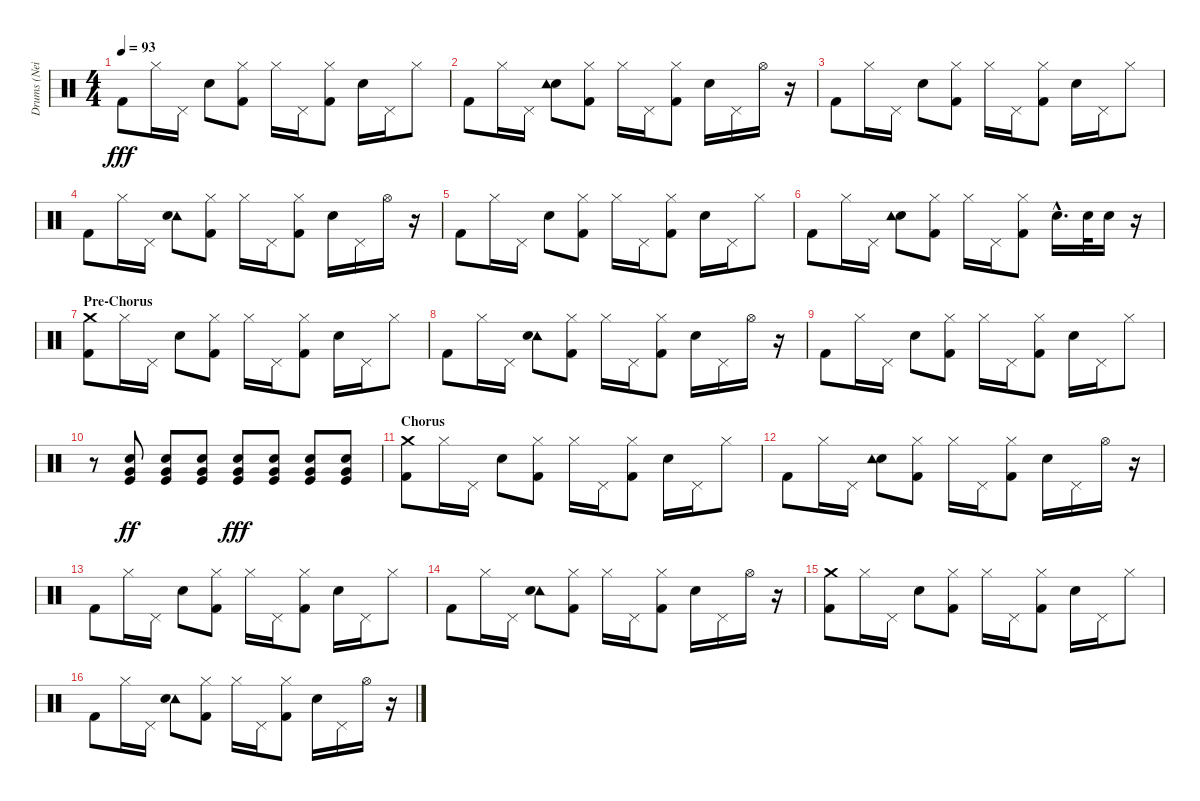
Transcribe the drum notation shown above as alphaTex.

\track ("Drums (Neil)" "Drums (Nei") {instrument percussion}
\staff {score}
\articulation defaults
\ts (4 4)
\tempo 93
\clef neutral
\ks c "Kick (hit) 2".8{dy fff} "Hi-Hat (closed)".16 "Pedal Hi-Hat (hit)".16 "Electric Snare (hit)".8
("Hi-Hat (closed)" "Kick (hit) 2").8 "Hi-Hat (closed)".16 "Pedal Hi-Hat (hit)".16 ("Hi-Hat (closed)" "Kick (hit) 2").8 "Electric Snare (hit)".16 "Pedal Hi-Hat (hit)".16 "Hi-Hat (closed)".8 |
"Kick (hit) 2".8 "Hi-Hat (closed)".16 "Pedal Hi-Hat (hit)".16 ("Electric Snare (hit)" "Tambourine (hit)").8 ("Hi-Hat (closed)" "Kick (hit) 2").8 "Hi-Hat (closed)".16 "Pedal Hi-Hat (hit)".16 ("Hi-Hat (closed)" "Kick (hit) 2").8 "Electric Snare (hit)".16 "Pedal Hi-Hat (hit)".16 "Hi-Hat (open)".16 r.16 |
"Kick (hit) 2".8 "Hi-Hat (closed)".16 "Pedal Hi-Hat (hit)".16 "Electric Snare (hit)".8 ("Hi-Hat (closed)" "Kick (hit) 2").8 "Hi-Hat (closed)".16 "Pedal Hi-Hat (hit)".16 ("Kick (hit) 2" "Hi-Hat (closed)").8 "Electric Snare (hit)".16 "Pedal Hi-Hat (hit)".16 "Hi-Hat (closed)".8 |
"Kick (hit) 2".8 "Hi-Hat (closed)".16 "Pedal Hi-Hat (hit)".16 ("Tambourine (hit)" "Electric Snare (hit)").8 ("Hi-Hat (closed)" "Kick (hit) 2").8 "Hi-Hat (closed)".16 "Pedal Hi-Hat (hit)".16 ("Kick (hit) 2" "Hi-Hat (closed)").8 "Electric Snare (hit)".16 "Pedal Hi-Hat (hit)".16 "Hi-Hat (open)".16 r.16 |
"Kick (hit) 2".8 "Hi-Hat (closed)".16 "Pedal Hi-Hat (hit)".16 "Electric Snare (hit)".8 ("Kick (hit) 2" "Hi-Hat (closed)").8 "Hi-Hat (closed)".16 "Pedal Hi-Hat (hit)".16 ("Kick (hit) 2" "Hi-Hat (closed)").8 "Electric Snare (hit)".16 "Pedal Hi-Hat (hit)".16 "Hi-Hat (closed)".8 |
"Kick (hit) 2".8 "Hi-Hat (closed)".16 "Pedal Hi-Hat (hit)".16 ("Electric Snare (hit)" "Tambourine (hit)").8 ("Kick (hit) 2" "Hi-Hat (closed)").8 "Hi-Hat (closed)".16 "Pedal Hi-Hat (hit)".16 ("Hi-Hat (closed)" "Kick (hit) 2").8 "Electric Snare (hit)"{hac}.16{d} "Electric Snare (hit)".32 "Electric Snare (hit)".16 r.16 |
\section ("" "Pre-Chorus")
("Crash medium (hit)" "Kick (hit) 2").8 "Hi-Hat (closed)".16 "Pedal Hi-Hat (hit)".16 "Electric Snare (hit)".8 ("Hi-Hat (closed)" "Kick (hit) 2").8 "Hi-Hat (closed)".16 "Pedal Hi-Hat (hit)".16 ("Kick (hit) 2" "Hi-Hat (closed)").8 "Electric Snare (hit)".16 "Pedal Hi-Hat (hit)".16 "Hi-Hat (closed)".8 |
"Kick (hit) 2".8 "Hi-Hat (closed)".16 "Pedal Hi-Hat (hit)".16 ("Tambourine (hit)" "Electric Snare (hit)").8 ("Kick (hit) 2" "Hi-Hat (closed)").8 "Hi-Hat (closed)".16 "Pedal Hi-Hat (hit)".16 ("Kick (hit) 2" "Hi-Hat (closed)").8 "Electric Snare (hit)".16 "Pedal Hi-Hat (hit)".16 "Hi-Hat (open)".16 r.16 |
"Kick (hit) 2".8 "Hi-Hat (closed)".16 "Pedal Hi-Hat (hit)".16 "Electric Snare (hit)".8 ("Hi-Hat (closed)" "Kick (hit) 2").8 "Hi-Hat (closed)".16 "Pedal Hi-Hat (hit)".16 ("Kick (hit) 2" "Hi-Hat (closed)").8 "Electric Snare (hit)".16 "Pedal Hi-Hat (hit)".16 "Hi-Hat (closed)".8 |
r.8 ("Kick (hit)" "Very Low Tom (hit)" "Electric Snare (hit)").8{dy ff} ("Electric Snare (hit)" "Kick (hit)" "Very Low Tom (hit)").8 ("Electric Snare (hit)" "Kick (hit)" "Very Low Tom (hit)").8 ("Electric Snare (hit)" "Kick (hit)" "Very Low Tom (hit)").8{dy fff} ("Very Low Tom (hit)" "Electric Snare (hit)" "Kick (hit)").8 ("Electric Snare (hit)" "Very Low Tom (hit)" "Kick (hit)").8 ("Kick (hit)" "Electric Snare (hit)" "Very Low Tom (hit)").8 |
\section ("" "Chorus")
("Kick (hit) 2" "Crash medium (hit)").8 "Hi-Hat (closed)".16 "Pedal Hi-Hat (hit)".16 "Electric Snare (hit)".8 ("Kick (hit) 2" "Hi-Hat (closed)").8 "Hi-Hat (closed)".16 "Pedal Hi-Hat (hit)".16 ("Kick (hit) 2" "Hi-Hat (closed)").8 "Electric Snare (hit)".16 "Pedal Hi-Hat (hit)".16 "Hi-Hat (closed)".8 |
"Kick (hit) 2".8 "Hi-Hat (closed)".16 "Pedal Hi-Hat (hit)".16 ("Electric Snare (hit)" "Tambourine (hit)").8 ("Hi-Hat (closed)" "Kick (hit) 2").8 "Hi-Hat (closed)".16 "Pedal Hi-Hat (hit)".16 ("Kick (hit) 2" "Hi-Hat (closed)").8 "Electric Snare (hit)".16 "Pedal Hi-Hat (hit)".16 "Hi-Hat (open)".16 r.16 |
"Kick (hit) 2".8 "Hi-Hat (closed)".16 "Pedal Hi-Hat (hit)".16 "Electric Snare (hit)".8 ("Kick (hit) 2" "Hi-Hat (closed)").8 "Hi-Hat (closed)".16 "Pedal Hi-Hat (hit)".16 ("Kick (hit) 2" "Hi-Hat (closed)").8 "Electric Snare (hit)".16 "Pedal Hi-Hat (hit)".16 "Hi-Hat (closed)".8 |
"Kick (hit) 2".8 "Hi-Hat (closed)".16 "Pedal Hi-Hat (hit)".16 ("Tambourine (hit)" "Electric Snare (hit)").8 ("Hi-Hat (closed)" "Kick (hit) 2").8 "Hi-Hat (closed)".16 "Pedal Hi-Hat (hit)".16 ("Kick (hit) 2" "Hi-Hat (closed)").8 "Electric Snare (hit)".16 "Pedal Hi-Hat (hit)".16 "Hi-Hat (open)".16 r.16 |
("Kick (hit) 2" "Crash medium (hit)").8 "Hi-Hat (closed)".16 "Pedal Hi-Hat (hit)".16 "Electric Snare (hit)".8 ("Hi-Hat (closed)" "Kick (hit) 2").8 "Hi-Hat (closed)".16 "Pedal Hi-Hat (hit)".16 ("Kick (hit) 2" "Hi-Hat (closed)").8 "Electric Snare (hit)".16 "Pedal Hi-Hat (hit)".16 "Hi-Hat (closed)".8 |
"Kick (hit) 2".8 "Hi-Hat (closed)".16 "Pedal Hi-Hat (hit)".16 ("Tambourine (hit)" "Electric Snare (hit)").8 ("Kick (hit) 2" "Hi-Hat (closed)").8 "Hi-Hat (closed)".16 "Pedal Hi-Hat (hit)".16 ("Kick (hit) 2" "Hi-Hat (closed)").8 "Electric Snare (hit)".16 "Pedal Hi-Hat (hit)".16 "Hi-Hat (open)".16 r.16
